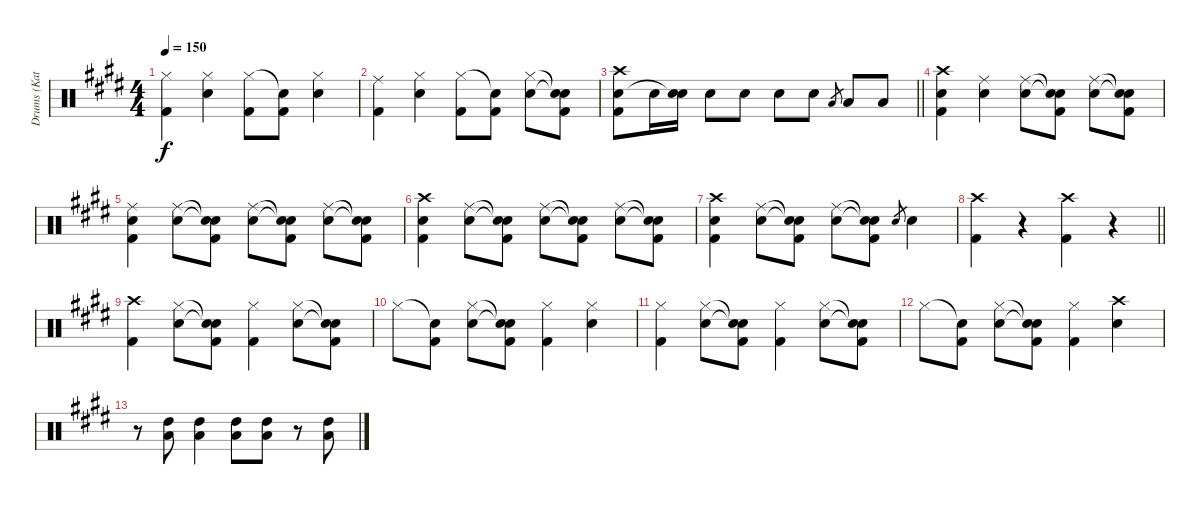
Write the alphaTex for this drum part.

\track ("Drums (Katsuji)" "Drums (Kat") {instrument percussion}
\staff {score}
\articulation defaults
\ts (4 4)
\tempo 150
\clef neutral
\ks e
("Hi-Hat (closed)" "Kick (hit) 2").4{dy f} ("Hi-Hat (closed)" "Snare (hit) 2").4 ("Hi-Hat (closed)" "Kick (hit) 2").8 ("Snare (hit)"{t} "Kick (hit) 2").8 ("Hi-Hat (closed)" "Snare (hit) 2").4 |
("Ride (middle)" "Kick (hit) 2").4 ("Hi-Hat (closed)" "Snare (hit) 2").4 ("Hi-Hat (closed)" "Kick (hit) 2").8 ("Snare (hit)"{t} "Kick (hit) 2").8 ("Hi-Hat (closed)" "Snare (hit) 2").8 ("Snare (hit)"{t} "Snare (hit)"{t} "Kick (hit) 2").8 |
\barLineRight lightlight
("Crash high (hit)" "Snare (hit) 2" "Kick (hit) 2").8 "Snare (hit) 2".16 ("Snare (hit) 2" "Snare (hit)"{t}).16 "Snare (hit) 2".8 "Snare (hit) 2".8 "Snare (hit) 2".8 "Snare (hit) 2".8 "Low Tom (hit)".8{gr} "Low Tom (hit)".8 "Low Tom (hit)".8 |
("Crash high (hit)" "Snare (hit) 2" "Kick (hit) 2").4 ("Ride (middle)" "Snare (hit) 2").4 ("Ride (middle)" "Snare (hit) 2").8 ("Snare (hit)"{t} "Snare (hit)"{t} "Kick (hit) 2").8 ("Ride (middle)" "Snare (hit) 2").8 ("Snare (hit)"{t} "Snare (hit)"{t} "Kick (hit) 2").8 |
("Ride (middle)" "Snare (hit) 2" "Kick (hit) 2").4 ("Ride (middle)" "Snare (hit) 2").8 ("Snare (hit)"{t} "Snare (hit)"{t} "Kick (hit) 2").8 ("Ride (middle)" "Snare (hit) 2").8 ("Snare (hit)"{t} "Snare (hit)"{t} "Kick (hit) 2").8 ("Ride (middle)" "Snare (hit) 2").8 ("Snare (hit)"{t} "Snare (hit)"{t} "Kick (hit) 2").8 |
("Crash high (hit)" "Snare (hit) 2" "Kick (hit) 2").4 ("Ride (middle)" "Snare (hit) 2").8 ("Snare (hit)"{t} "Snare (hit)"{t} "Kick (hit) 2").8 ("Ride (middle)" "Snare (hit) 2").8 ("Snare (hit)"{t} "Snare (hit)"{t} "Kick (hit) 2").8 ("Ride (middle)" "Snare (hit) 2").8 ("Snare (hit)"{t} "Snare (hit)"{t} "Kick (hit) 2").8 |
("Crash high (hit)" "Snare (hit) 2" "Kick (hit) 2").4 ("Ride (middle)" "Snare (hit) 2").8 ("Snare (hit)"{t} "Snare (hit)"{t} "Kick (hit) 2").8 ("Ride (middle)" "Snare (hit) 2").8 ("Snare (hit)"{t} "Snare (hit)"{t} "Kick (hit) 2").8 "Snare (hit) 2".8{gr} "Snare (hit) 2".4 |
\barLineRight lightlight
("Crash high (hit)" "Kick (hit) 2").4 r.4 ("Crash high (hit)" "Kick (hit) 2").4 r.4 |
("Crash high (hit)" "Kick (hit) 2").4 ("Hi-Hat (closed)" "Snare (hit) 2").8 ("Snare (hit)"{t} "Snare (hit)"{t} "Kick (hit) 2").8 ("Hi-Hat (closed)" "Kick (hit) 2").4 ("Hi-Hat (closed)" "Snare (hit) 2").8 ("Snare (hit)"{t} "Snare (hit)"{t} "Kick (hit) 2").8 |
"Hi-Hat (closed)".8 ("Snare (hit)"{t} "Kick (hit) 2").8 ("Hi-Hat (closed)" "Snare (hit) 2").8 ("Snare (hit)"{t} "Snare (hit)"{t} "Kick (hit) 2").8 ("Hi-Hat (closed)" "Kick (hit) 2").4 ("Hi-Hat (closed)" "Snare (hit) 2").4 |
("Hi-Hat (closed)" "Kick (hit) 2").4 ("Hi-Hat (closed)" "Snare (hit) 2").8 ("Snare (hit)"{t} "Snare (hit)"{t} "Kick (hit) 2").8 ("Hi-Hat (closed)" "Kick (hit) 2").4 ("Hi-Hat (closed)" "Snare (hit) 2").8 ("Snare (hit)"{t} "Snare (hit)"{t} "Kick (hit) 2").8 |
"Hi-Hat (closed)".8 ("Snare (hit)"{t} "Kick (hit) 2").8 ("Hi-Hat (closed)" "Snare (hit) 2").8 ("Snare (hit)"{t} "Snare (hit)"{t} "Kick (hit) 2").8 ("Hi-Hat (closed)" "Kick (hit) 2").4 ("Crash high (hit)" "Snare (hit) 2").4 |
r.8 ("High Tom (hit)" "Low Tom (hit)").8 ("High Tom (hit)" "Low Tom (hit)").4 ("High Tom (hit)" "Low Tom (hit)").8 ("High Tom (hit)" "Low Tom (hit)").8 r.8 ("High Tom (hit)" "Low Tom (hit)").8
